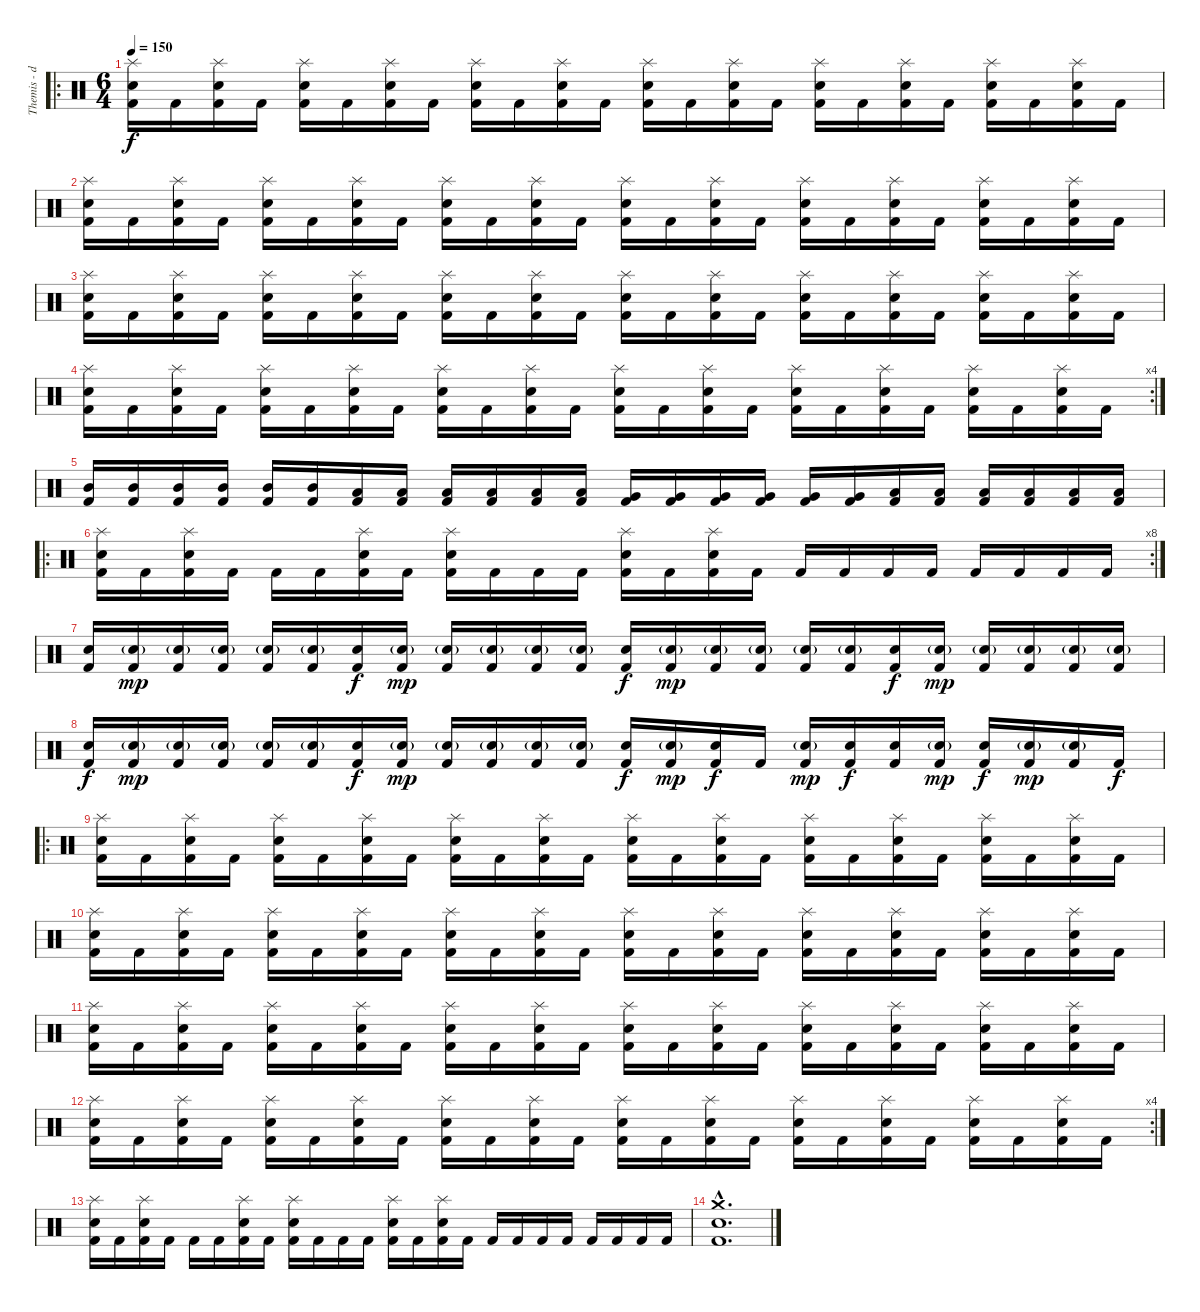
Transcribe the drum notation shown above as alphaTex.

\track ("Themis - drms" "Themis - d") {instrument percussion}
\staff {score}
\articulation defaults
\ro
\ts (6 4)
\tempo 150
\clef neutral
\ks c
("Splash (hit)" "Electric Snare (hit)" "Kick (hit) 2").16{dy f} "Kick (hit) 2".16 ("Splash (hit)" "Electric Snare (hit)" "Kick (hit) 2").16 "Kick (hit) 2".16 ("Splash (hit)" "Electric Snare (hit)" "Kick (hit) 2").16 "Kick (hit) 2".16 ("Splash (hit)" "Electric Snare (hit)" "Kick (hit) 2").16 "Kick (hit) 2".16 ("Splash (hit)" "Electric Snare (hit)" "Kick (hit) 2").16 "Kick (hit) 2".16 ("Splash (hit)" "Electric Snare (hit)" "Kick (hit) 2").16 "Kick (hit) 2".16 ("Splash (hit)" "Electric Snare (hit)" "Kick (hit) 2").16 "Kick (hit) 2".16 ("Splash (hit)" "Electric Snare (hit)" "Kick (hit) 2").16 "Kick (hit) 2".16 ("Splash (hit)" "Electric Snare (hit)" "Kick (hit) 2").16 "Kick (hit) 2".16 ("Splash (hit)" "Electric Snare (hit)" "Kick (hit) 2").16 "Kick (hit) 2".16 ("Splash (hit)" "Electric Snare (hit)" "Kick (hit) 2").16 "Kick (hit) 2".16 ("Splash (hit)" "Electric Snare (hit)" "Kick (hit) 2").16 "Kick (hit) 2".16 |
("Splash (hit)" "Electric Snare (hit)" "Kick (hit) 2").16 "Kick (hit) 2".16 ("Splash (hit)" "Electric Snare (hit)" "Kick (hit) 2").16 "Kick (hit) 2".16 ("Splash (hit)" "Electric Snare (hit)" "Kick (hit) 2").16 "Kick (hit) 2".16 ("Splash (hit)" "Electric Snare (hit)" "Kick (hit) 2").16 "Kick (hit) 2".16 ("Splash (hit)" "Electric Snare (hit)" "Kick (hit) 2").16 "Kick (hit) 2".16 ("Splash (hit)" "Electric Snare (hit)" "Kick (hit) 2").16 "Kick (hit) 2".16 ("Splash (hit)" "Electric Snare (hit)" "Kick (hit) 2").16 "Kick (hit) 2".16 ("Splash (hit)" "Electric Snare (hit)" "Kick (hit) 2").16 "Kick (hit) 2".16 ("Splash (hit)" "Electric Snare (hit)" "Kick (hit) 2").16 "Kick (hit) 2".16 ("Splash (hit)" "Electric Snare (hit)" "Kick (hit) 2").16 "Kick (hit) 2".16 ("Splash (hit)" "Electric Snare (hit)" "Kick (hit) 2").16 "Kick (hit) 2".16 ("Splash (hit)" "Electric Snare (hit)" "Kick (hit) 2").16 "Kick (hit) 2".16 |
("Splash (hit)" "Electric Snare (hit)" "Kick (hit) 2").16 "Kick (hit) 2".16 ("Splash (hit)" "Electric Snare (hit)" "Kick (hit) 2").16 "Kick (hit) 2".16 ("Splash (hit)" "Electric Snare (hit)" "Kick (hit) 2").16 "Kick (hit) 2".16 ("Splash (hit)" "Electric Snare (hit)" "Kick (hit) 2").16 "Kick (hit) 2".16 ("Splash (hit)" "Electric Snare (hit)" "Kick (hit) 2").16 "Kick (hit) 2".16 ("Splash (hit)" "Electric Snare (hit)" "Kick (hit) 2").16 "Kick (hit) 2".16 ("Splash (hit)" "Electric Snare (hit)" "Kick (hit) 2").16 "Kick (hit) 2".16 ("Splash (hit)" "Electric Snare (hit)" "Kick (hit) 2").16 "Kick (hit) 2".16 ("Splash (hit)" "Electric Snare (hit)" "Kick (hit) 2").16 "Kick (hit) 2".16 ("Splash (hit)" "Electric Snare (hit)" "Kick (hit) 2").16 "Kick (hit) 2".16 ("Splash (hit)" "Electric Snare (hit)" "Kick (hit) 2").16 "Kick (hit) 2".16 ("Splash (hit)" "Electric Snare (hit)" "Kick (hit) 2").16 "Kick (hit) 2".16 |
\rc 4
("Splash (hit)" "Electric Snare (hit)" "Kick (hit) 2").16 "Kick (hit) 2".16 ("Splash (hit)" "Electric Snare (hit)" "Kick (hit) 2").16 "Kick (hit) 2".16 ("Splash (hit)" "Electric Snare (hit)" "Kick (hit) 2").16 "Kick (hit) 2".16 ("Splash (hit)" "Electric Snare (hit)" "Kick (hit) 2").16 "Kick (hit) 2".16 ("Splash (hit)" "Electric Snare (hit)" "Kick (hit) 2").16 "Kick (hit) 2".16 ("Splash (hit)" "Electric Snare (hit)" "Kick (hit) 2").16 "Kick (hit) 2".16 ("Splash (hit)" "Electric Snare (hit)" "Kick (hit) 2").16 "Kick (hit) 2".16 ("Splash (hit)" "Electric Snare (hit)" "Kick (hit) 2").16 "Kick (hit) 2".16 ("Splash (hit)" "Electric Snare (hit)" "Kick (hit) 2").16 "Kick (hit) 2".16 ("Splash (hit)" "Electric Snare (hit)" "Kick (hit) 2").16 "Kick (hit) 2".16 ("Splash (hit)" "Electric Snare (hit)" "Kick (hit) 2").16 "Kick (hit) 2".16 ("Splash (hit)" "Electric Snare (hit)" "Kick (hit) 2").16 "Kick (hit) 2".16 |
("Mid Tom (hit)" "Kick (hit) 2").16 ("Mid Tom (hit)" "Kick (hit) 2").16 ("Mid Tom (hit)" "Kick (hit) 2").16 ("Mid Tom (hit)" "Kick (hit) 2").16 ("Mid Tom (hit)" "Kick (hit) 2").16 ("Mid Tom (hit)" "Kick (hit) 2").16 ("Low Tom (hit)" "Kick (hit) 2").16 ("Low Tom (hit)" "Kick (hit) 2").16 ("Low Tom (hit)" "Kick (hit) 2").16 ("Low Tom (hit)" "Kick (hit) 2").16 ("Low Tom (hit)" "Kick (hit) 2").16 ("Low Tom (hit)" "Kick (hit) 2").16 ("Very Low Tom (hit)" "Kick (hit) 2").16 ("Very Low Tom (hit)" "Kick (hit) 2").16 ("Very Low Tom (hit)" "Kick (hit) 2").16 ("Very Low Tom (hit)" "Kick (hit) 2").16 ("Very Low Tom (hit)" "Kick (hit) 2").16 ("Very Low Tom (hit)" "Kick (hit) 2").16 ("Low Floor Tom (hit)" "Kick (hit) 2").16 ("Low Floor Tom (hit)" "Kick (hit) 2").16 ("Low Floor Tom (hit)" "Kick (hit) 2").16 ("Low Floor Tom (hit)" "Kick (hit) 2").16 ("Low Floor Tom (hit)" "Kick (hit) 2").16 ("Low Floor Tom (hit)" "Kick (hit) 2").16 |
\ro
\rc 8
("Splash (hit)" "Electric Snare (hit)" "Kick (hit) 2").16 "Kick (hit) 2".16 ("Splash (hit)" "Electric Snare (hit)" "Kick (hit) 2").16 "Kick (hit) 2".16 "Kick (hit) 2".16 "Kick (hit) 2".16 ("Splash (hit)" "Electric Snare (hit)" "Kick (hit) 2").16 "Kick (hit) 2".16 ("Splash (hit)" "Electric Snare (hit)" "Kick (hit) 2").16 "Kick (hit) 2".16 "Kick (hit) 2".16 "Kick (hit) 2".16 ("Splash (hit)" "Electric Snare (hit)" "Kick (hit) 2").16 "Kick (hit) 2".16 ("Splash (hit)" "Electric Snare (hit)" "Kick (hit) 2").16 "Kick (hit) 2".16 "Kick (hit) 2".16 "Kick (hit) 2".16 "Kick (hit) 2".16 "Kick (hit) 2".16 "Kick (hit) 2".16 "Kick (hit) 2".16 "Kick (hit) 2".16 "Kick (hit) 2".16 |
("Electric Snare (hit)" "Kick (hit) 2").16 ("Electric Snare (hit)"{g} "Kick (hit) 2").16{dy mp} ("Electric Snare (hit)"{g} "Kick (hit) 2").16 ("Electric Snare (hit)"{g} "Kick (hit) 2").16 ("Electric Snare (hit)"{g} "Kick (hit) 2").16 ("Electric Snare (hit)"{g} "Kick (hit) 2").16 ("Electric Snare (hit)" "Kick (hit) 2").16{dy f} ("Electric Snare (hit)"{g} "Kick (hit) 2").16{dy mp} ("Electric Snare (hit)"{g} "Kick (hit) 2").16 ("Electric Snare (hit)"{g} "Kick (hit) 2").16 ("Electric Snare (hit)"{g} "Kick (hit) 2").16 ("Electric Snare (hit)"{g} "Kick (hit) 2").16 ("Electric Snare (hit)" "Kick (hit) 2").16{dy f} ("Electric Snare (hit)"{g} "Kick (hit) 2").16{dy mp} ("Electric Snare (hit)"{g} "Kick (hit) 2").16 ("Electric Snare (hit)"{g} "Kick (hit) 2").16 ("Electric Snare (hit)"{g} "Kick (hit) 2").16 ("Electric Snare (hit)"{g} "Kick (hit) 2").16 ("Electric Snare (hit)" "Kick (hit) 2").16{dy f} ("Electric Snare (hit)"{g} "Kick (hit) 2").16{dy mp} ("Electric Snare (hit)"{g} "Kick (hit) 2").16 ("Electric Snare (hit)"{g} "Kick (hit) 2").16 ("Electric Snare (hit)"{g} "Kick (hit) 2").16 ("Electric Snare (hit)"{g} "Kick (hit) 2").16 |
("Electric Snare (hit)" "Kick (hit) 2").16{dy f} ("Electric Snare (hit)"{g} "Kick (hit) 2").16{dy mp} ("Electric Snare (hit)"{g} "Kick (hit) 2").16 ("Electric Snare (hit)"{g} "Kick (hit) 2").16 ("Electric Snare (hit)"{g} "Kick (hit) 2").16 ("Electric Snare (hit)"{g} "Kick (hit) 2").16 ("Electric Snare (hit)" "Kick (hit) 2").16{dy f} ("Electric Snare (hit)"{g} "Kick (hit) 2").16{dy mp} ("Electric Snare (hit)"{g} "Kick (hit) 2").16 ("Electric Snare (hit)"{g} "Kick (hit) 2").16 ("Electric Snare (hit)"{g} "Kick (hit) 2").16 ("Electric Snare (hit)"{g} "Kick (hit) 2").16 ("Electric Snare (hit)" "Kick (hit) 2").16{dy f} ("Electric Snare (hit)"{g} "Kick (hit) 2").16{dy mp} ("Electric Snare (hit)" "Kick (hit) 2").16{dy f} "Kick (hit) 2".16 ("Electric Snare (hit)"{g} "Kick (hit) 2").16{dy mp} ("Electric Snare (hit)" "Kick (hit) 2").16{dy f} ("Electric Snare (hit)" "Kick (hit) 2").16 ("Electric Snare (hit)"{g} "Kick (hit) 2").16{dy mp} ("Electric Snare (hit)" "Kick (hit) 2").16{dy f} ("Electric Snare (hit)"{g} "Kick (hit) 2").16{dy mp} ("Electric Snare (hit)"{g} "Kick (hit) 2").16 "Kick (hit) 2".16{dy f} |
\ro
("Splash (hit)" "Electric Snare (hit)" "Kick (hit) 2").16 "Kick (hit) 2".16 ("Splash (hit)" "Electric Snare (hit)" "Kick (hit) 2").16 "Kick (hit) 2".16 ("Splash (hit)" "Electric Snare (hit)" "Kick (hit) 2").16 "Kick (hit) 2".16 ("Splash (hit)" "Electric Snare (hit)" "Kick (hit) 2").16 "Kick (hit) 2".16 ("Splash (hit)" "Electric Snare (hit)" "Kick (hit) 2").16 "Kick (hit) 2".16 ("Splash (hit)" "Electric Snare (hit)" "Kick (hit) 2").16 "Kick (hit) 2".16 ("Splash (hit)" "Electric Snare (hit)" "Kick (hit) 2").16 "Kick (hit) 2".16 ("Splash (hit)" "Electric Snare (hit)" "Kick (hit) 2").16 "Kick (hit) 2".16 ("Splash (hit)" "Electric Snare (hit)" "Kick (hit) 2").16 "Kick (hit) 2".16 ("Splash (hit)" "Electric Snare (hit)" "Kick (hit) 2").16 "Kick (hit) 2".16 ("Splash (hit)" "Electric Snare (hit)" "Kick (hit) 2").16 "Kick (hit) 2".16 ("Splash (hit)" "Electric Snare (hit)" "Kick (hit) 2").16 "Kick (hit) 2".16 |
("Splash (hit)" "Electric Snare (hit)" "Kick (hit) 2").16 "Kick (hit) 2".16 ("Splash (hit)" "Electric Snare (hit)" "Kick (hit) 2").16 "Kick (hit) 2".16 ("Splash (hit)" "Electric Snare (hit)" "Kick (hit) 2").16 "Kick (hit) 2".16 ("Splash (hit)" "Electric Snare (hit)" "Kick (hit) 2").16 "Kick (hit) 2".16 ("Splash (hit)" "Electric Snare (hit)" "Kick (hit) 2").16 "Kick (hit) 2".16 ("Splash (hit)" "Electric Snare (hit)" "Kick (hit) 2").16 "Kick (hit) 2".16 ("Splash (hit)" "Electric Snare (hit)" "Kick (hit) 2").16 "Kick (hit) 2".16 ("Splash (hit)" "Electric Snare (hit)" "Kick (hit) 2").16 "Kick (hit) 2".16 ("Splash (hit)" "Electric Snare (hit)" "Kick (hit) 2").16 "Kick (hit) 2".16 ("Splash (hit)" "Electric Snare (hit)" "Kick (hit) 2").16 "Kick (hit) 2".16 ("Splash (hit)" "Electric Snare (hit)" "Kick (hit) 2").16 "Kick (hit) 2".16 ("Splash (hit)" "Electric Snare (hit)" "Kick (hit) 2").16 "Kick (hit) 2".16 |
("Splash (hit)" "Electric Snare (hit)" "Kick (hit) 2").16 "Kick (hit) 2".16 ("Splash (hit)" "Electric Snare (hit)" "Kick (hit) 2").16 "Kick (hit) 2".16 ("Splash (hit)" "Electric Snare (hit)" "Kick (hit) 2").16 "Kick (hit) 2".16 ("Splash (hit)" "Electric Snare (hit)" "Kick (hit) 2").16 "Kick (hit) 2".16 ("Splash (hit)" "Electric Snare (hit)" "Kick (hit) 2").16 "Kick (hit) 2".16 ("Splash (hit)" "Electric Snare (hit)" "Kick (hit) 2").16 "Kick (hit) 2".16 ("Splash (hit)" "Electric Snare (hit)" "Kick (hit) 2").16 "Kick (hit) 2".16 ("Splash (hit)" "Electric Snare (hit)" "Kick (hit) 2").16 "Kick (hit) 2".16 ("Splash (hit)" "Electric Snare (hit)" "Kick (hit) 2").16 "Kick (hit) 2".16 ("Splash (hit)" "Electric Snare (hit)" "Kick (hit) 2").16 "Kick (hit) 2".16 ("Splash (hit)" "Electric Snare (hit)" "Kick (hit) 2").16 "Kick (hit) 2".16 ("Splash (hit)" "Electric Snare (hit)" "Kick (hit) 2").16 "Kick (hit) 2".16 |
\rc 4
("Splash (hit)" "Electric Snare (hit)" "Kick (hit) 2").16 "Kick (hit) 2".16 ("Splash (hit)" "Electric Snare (hit)" "Kick (hit) 2").16 "Kick (hit) 2".16 ("Splash (hit)" "Electric Snare (hit)" "Kick (hit) 2").16 "Kick (hit) 2".16 ("Splash (hit)" "Electric Snare (hit)" "Kick (hit) 2").16 "Kick (hit) 2".16 ("Splash (hit)" "Electric Snare (hit)" "Kick (hit) 2").16 "Kick (hit) 2".16 ("Splash (hit)" "Electric Snare (hit)" "Kick (hit) 2").16 "Kick (hit) 2".16 ("Splash (hit)" "Electric Snare (hit)" "Kick (hit) 2").16 "Kick (hit) 2".16 ("Splash (hit)" "Electric Snare (hit)" "Kick (hit) 2").16 "Kick (hit) 2".16 ("Splash (hit)" "Electric Snare (hit)" "Kick (hit) 2").16 "Kick (hit) 2".16 ("Splash (hit)" "Electric Snare (hit)" "Kick (hit) 2").16 "Kick (hit) 2".16 ("Splash (hit)" "Electric Snare (hit)" "Kick (hit) 2").16 "Kick (hit) 2".16 ("Splash (hit)" "Electric Snare (hit)" "Kick (hit) 2").16 "Kick (hit) 2".16 |
("Splash (hit)" "Electric Snare (hit)" "Kick (hit) 2").16 "Kick (hit) 2".16 ("Splash (hit)" "Electric Snare (hit)" "Kick (hit) 2").16 "Kick (hit) 2".16 "Kick (hit) 2".16 "Kick (hit) 2".16 ("Splash (hit)" "Electric Snare (hit)" "Kick (hit) 2").16 "Kick (hit) 2".16 ("Splash (hit)" "Electric Snare (hit)" "Kick (hit) 2").16 "Kick (hit) 2".16 "Kick (hit) 2".16 "Kick (hit) 2".16 ("Splash (hit)" "Electric Snare (hit)" "Kick (hit) 2").16 "Kick (hit) 2".16 ("Splash (hit)" "Electric Snare (hit)" "Kick (hit) 2").16 "Kick (hit) 2".16 "Kick (hit) 2".16 "Kick (hit) 2".16 "Kick (hit) 2".16 "Kick (hit) 2".16 "Kick (hit) 2".16 "Kick (hit) 2".16 "Kick (hit) 2".16 "Kick (hit) 2".16 |
("Crash medium (hit)"{hac} "Electric Snare (hit)"{hac} "Kick (hit) 2"{hac}).1{d}
